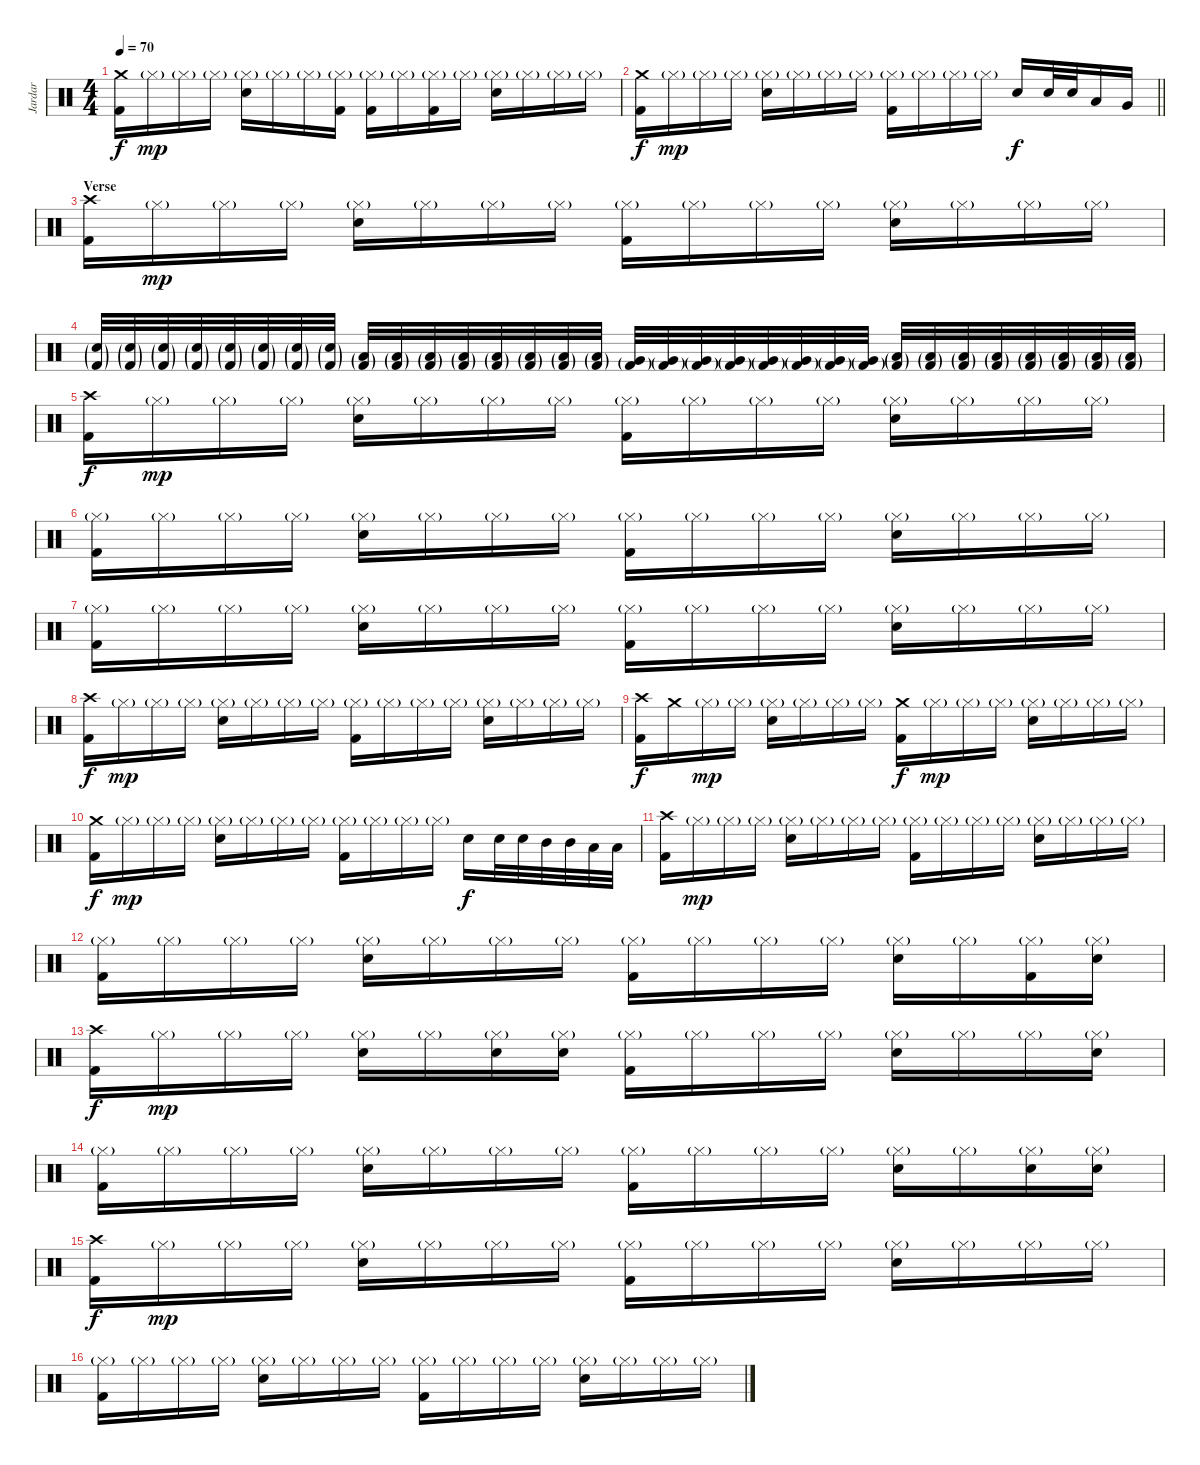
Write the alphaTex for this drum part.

\track ("Jardar" "Jardar") {instrument percussion}
\staff {score}
\articulation defaults
\ts (4 4)
\tempo 70
\clef neutral
\ks c
("Crash medium (hit)" "Kick (hit) 2").16{dy f} "Hi-Hat (closed)"{g}.16{dy mp} "Hi-Hat (closed)"{g}.16 "Hi-Hat (closed)"{g}.16 ("Hi-Hat (closed)"{g} "Electric Snare (hit)").16 "Hi-Hat (closed)"{g}.16 "Hi-Hat (closed)"{g}.16 ("Hi-Hat (closed)"{g} "Kick (hit) 2").16 ("Hi-Hat (closed)"{g} "Kick (hit) 2").16 "Hi-Hat (closed)"{g}.16 ("Hi-Hat (closed)"{g} "Kick (hit) 2").16 "Hi-Hat (closed)"{g}.16 ("Hi-Hat (closed)"{g} "Electric Snare (hit)").16 "Hi-Hat (closed)"{g}.16 "Hi-Hat (closed)"{g}.16 "Hi-Hat (closed)"{g}.16 |
\barLineRight lightlight
("Crash medium (hit)" "Kick (hit) 2").16{dy f} "Hi-Hat (closed)"{g}.16{dy mp} "Hi-Hat (closed)"{g}.16 "Hi-Hat (closed)"{g}.16 ("Hi-Hat (closed)"{g} "Electric Snare (hit)").16 "Hi-Hat (closed)"{g}.16 "Hi-Hat (closed)"{g}.16 "Hi-Hat (closed)"{g}.16 ("Hi-Hat (closed)"{g} "Kick (hit) 2").16 "Hi-Hat (closed)"{g}.16 "Hi-Hat (closed)"{g}.16 "Hi-Hat (closed)"{g}.16 "Electric Snare (hit)".16{dy f} "Electric Snare (hit)".32 "Electric Snare (hit)".32 "Low Tom (hit)".16 "Very Low Tom (hit)".16 |
\section ("" "Verse")
("Crash high (hit)" "Kick (hit) 2").16 "Hi-Hat (closed)"{g}.16{dy mp} "Hi-Hat (closed)"{g}.16 "Hi-Hat (closed)"{g}.16 ("Hi-Hat (closed)"{g} "Electric Snare (hit)").16 "Hi-Hat (closed)"{g}.16 "Hi-Hat (closed)"{g}.16 "Hi-Hat (closed)"{g}.16 ("Hi-Hat (closed)"{g} "Kick (hit) 2").16 "Hi-Hat (closed)"{g}.16 "Hi-Hat (closed)"{g}.16 "Hi-Hat (closed)"{g}.16 ("Hi-Hat (closed)"{g} "Electric Snare (hit)").16 "Hi-Hat (closed)"{g}.16 "Hi-Hat (closed)"{g}.16 "Hi-Hat (closed)"{g}.16 |
("Electric Snare (hit)"{g} "Kick (hit) 2"{g}).32 ("Electric Snare (hit)"{g} "Kick (hit) 2"{g}).32 ("Electric Snare (hit)"{g} "Kick (hit) 2"{g}).32 ("Electric Snare (hit)"{g} "Kick (hit) 2"{g}).32 ("Electric Snare (hit)"{g} "Kick (hit) 2"{g}).32 ("Electric Snare (hit)"{g} "Kick (hit) 2"{g}).32 ("Electric Snare (hit)"{g} "Kick (hit) 2"{g}).32 ("Electric Snare (hit)"{g} "Kick (hit) 2"{g}).32 ("Low Tom (hit)"{g} "Kick (hit) 2"{g}).32 ("Low Tom (hit)"{g} "Kick (hit) 2"{g}).32 ("Low Tom (hit)"{g} "Kick (hit) 2"{g}).32 ("Low Tom (hit)"{g} "Kick (hit) 2"{g}).32 ("Low Tom (hit)"{g} "Kick (hit) 2"{g}).32 ("Low Tom (hit)"{g} "Kick (hit) 2"{g}).32 ("Low Tom (hit)"{g} "Kick (hit) 2"{g}).32 ("Low Tom (hit)"{g} "Kick (hit) 2"{g}).32 ("Very Low Tom (hit)"{g} "Kick (hit) 2"{g}).32 ("Very Low Tom (hit)"{g} "Kick (hit) 2"{g}).32 ("Very Low Tom (hit)"{g} "Kick (hit) 2"{g}).32 ("Very Low Tom (hit)"{g} "Kick (hit) 2"{g}).32 ("Very Low Tom (hit)"{g} "Kick (hit) 2"{g}).32 ("Very Low Tom (hit)"{g} "Kick (hit) 2"{g}).32 ("Very Low Tom (hit)"{g} "Kick (hit) 2"{g}).32 ("Very Low Tom (hit)"{g} "Kick (hit) 2"{g}).32 ("Low Floor Tom (hit)"{g} "Kick (hit) 2"{g}).32 ("Low Floor Tom (hit)"{g} "Kick (hit) 2"{g}).32 ("Low Floor Tom (hit)"{g} "Kick (hit) 2"{g}).32 ("Low Floor Tom (hit)"{g} "Kick (hit) 2"{g}).32 ("Low Floor Tom (hit)"{g} "Kick (hit) 2"{g}).32 ("Low Floor Tom (hit)"{g} "Kick (hit) 2"{g}).32 ("Low Floor Tom (hit)"{g} "Kick (hit) 2"{g}).32 ("Low Floor Tom (hit)"{g} "Kick (hit) 2"{g}).32 |
("Crash high (hit)" "Kick (hit) 2").16{dy f} "Hi-Hat (closed)"{g}.16{dy mp} "Hi-Hat (closed)"{g}.16 "Hi-Hat (closed)"{g}.16 ("Hi-Hat (closed)"{g} "Electric Snare (hit)").16 "Hi-Hat (closed)"{g}.16 "Hi-Hat (closed)"{g}.16 "Hi-Hat (closed)"{g}.16 ("Hi-Hat (closed)"{g} "Kick (hit) 2").16 "Hi-Hat (closed)"{g}.16 "Hi-Hat (closed)"{g}.16 "Hi-Hat (closed)"{g}.16 ("Hi-Hat (closed)"{g} "Electric Snare (hit)").16 "Hi-Hat (closed)"{g}.16 "Hi-Hat (closed)"{g}.16 "Hi-Hat (closed)"{g}.16 |
("Hi-Hat (closed)"{g} "Kick (hit) 2").16 "Hi-Hat (closed)"{g}.16 "Hi-Hat (closed)"{g}.16 "Hi-Hat (closed)"{g}.16 ("Hi-Hat (closed)"{g} "Electric Snare (hit)").16 "Hi-Hat (closed)"{g}.16 "Hi-Hat (closed)"{g}.16 "Hi-Hat (closed)"{g}.16 ("Hi-Hat (closed)"{g} "Kick (hit) 2").16 "Hi-Hat (closed)"{g}.16 "Hi-Hat (closed)"{g}.16 "Hi-Hat (closed)"{g}.16 ("Hi-Hat (closed)"{g} "Electric Snare (hit)").16 "Hi-Hat (closed)"{g}.16 "Hi-Hat (closed)"{g}.16 "Hi-Hat (closed)"{g}.16 |
("Hi-Hat (closed)"{g} "Kick (hit) 2").16 "Hi-Hat (closed)"{g}.16 "Hi-Hat (closed)"{g}.16 "Hi-Hat (closed)"{g}.16 ("Hi-Hat (closed)"{g} "Electric Snare (hit)").16 "Hi-Hat (closed)"{g}.16 "Hi-Hat (closed)"{g}.16 "Hi-Hat (closed)"{g}.16 ("Hi-Hat (closed)"{g} "Kick (hit) 2").16 "Hi-Hat (closed)"{g}.16 "Hi-Hat (closed)"{g}.16 "Hi-Hat (closed)"{g}.16 ("Hi-Hat (closed)"{g} "Electric Snare (hit)").16 "Hi-Hat (closed)"{g}.16 "Hi-Hat (closed)"{g}.16 "Hi-Hat (closed)"{g}.16 |
("Crash high (hit)" "Kick (hit) 2").16{dy f} "Hi-Hat (closed)"{g}.16{dy mp} "Hi-Hat (closed)"{g}.16 "Hi-Hat (closed)"{g}.16 ("Hi-Hat (closed)"{g} "Electric Snare (hit)").16 "Hi-Hat (closed)"{g}.16 "Hi-Hat (closed)"{g}.16 "Hi-Hat (closed)"{g}.16 ("Hi-Hat (closed)"{g} "Kick (hit) 2").16 "Hi-Hat (closed)"{g}.16 "Hi-Hat (closed)"{g}.16 "Hi-Hat (closed)"{g}.16 ("Hi-Hat (closed)"{g} "Electric Snare (hit)").16 "Hi-Hat (closed)"{g}.16 "Hi-Hat (closed)"{g}.16 "Hi-Hat (closed)"{g}.16 |
("Crash high (hit)" "Kick (hit) 2").16{dy f} "Crash medium (hit)".16 "Hi-Hat (closed)"{g}.16{dy mp} "Hi-Hat (closed)"{g}.16 ("Hi-Hat (closed)"{g} "Electric Snare (hit)").16 "Hi-Hat (closed)"{g}.16 "Hi-Hat (closed)"{g}.16 "Hi-Hat (closed)"{g}.16 ("Crash medium (hit)" "Kick (hit) 2").16{dy f} "Hi-Hat (closed)"{g}.16{dy mp} "Hi-Hat (closed)"{g}.16 "Hi-Hat (closed)"{g}.16 ("Hi-Hat (closed)"{g} "Electric Snare (hit)").16 "Hi-Hat (closed)"{g}.16 "Hi-Hat (closed)"{g}.16 "Hi-Hat (closed)"{g}.16 |
("Crash medium (hit)" "Kick (hit) 2").16{dy f} "Hi-Hat (closed)"{g}.16{dy mp} "Hi-Hat (closed)"{g}.16 "Hi-Hat (closed)"{g}.16 ("Hi-Hat (closed)"{g} "Electric Snare (hit)").16 "Hi-Hat (closed)"{g}.16 "Hi-Hat (closed)"{g}.16 "Hi-Hat (closed)"{g}.16 ("Hi-Hat (closed)"{g} "Kick (hit) 2").16 "Hi-Hat (closed)"{g}.16 "Hi-Hat (closed)"{g}.16 "Hi-Hat (closed)"{g}.16 "Electric Snare (hit)".16{dy f} "Electric Snare (hit)".32 "Electric Snare (hit)".32 "Mid Tom (hit)".32 "Mid Tom (hit)".32 "Low Tom (hit)".32 "Low Tom (hit)".32 |
("Crash high (hit)" "Kick (hit) 2").16 "Hi-Hat (closed)"{g}.16{dy mp} "Hi-Hat (closed)"{g}.16 "Hi-Hat (closed)"{g}.16 ("Hi-Hat (closed)"{g} "Electric Snare (hit)").16 "Hi-Hat (closed)"{g}.16 "Hi-Hat (closed)"{g}.16 "Hi-Hat (closed)"{g}.16 ("Hi-Hat (closed)"{g} "Kick (hit) 2").16 "Hi-Hat (closed)"{g}.16 "Hi-Hat (closed)"{g}.16 "Hi-Hat (closed)"{g}.16 ("Hi-Hat (closed)"{g} "Electric Snare (hit)").16 "Hi-Hat (closed)"{g}.16 "Hi-Hat (closed)"{g}.16 "Hi-Hat (closed)"{g}.16 |
("Hi-Hat (closed)"{g} "Kick (hit) 2").16 "Hi-Hat (closed)"{g}.16 "Hi-Hat (closed)"{g}.16 "Hi-Hat (closed)"{g}.16 ("Hi-Hat (closed)"{g} "Electric Snare (hit)").16 "Hi-Hat (closed)"{g}.16 "Hi-Hat (closed)"{g}.16 "Hi-Hat (closed)"{g}.16 ("Hi-Hat (closed)"{g} "Kick (hit) 2").16 "Hi-Hat (closed)"{g}.16 "Hi-Hat (closed)"{g}.16 "Hi-Hat (closed)"{g}.16 ("Hi-Hat (closed)"{g} "Electric Snare (hit)").16 "Hi-Hat (closed)"{g}.16 ("Hi-Hat (closed)"{g} "Kick (hit) 2").16 ("Hi-Hat (closed)"{g} "Electric Snare (hit)").16 |
("Crash high (hit)" "Kick (hit) 2").16{dy f} "Hi-Hat (closed)"{g}.16{dy mp} "Hi-Hat (closed)"{g}.16 "Hi-Hat (closed)"{g}.16 ("Hi-Hat (closed)"{g} "Electric Snare (hit)").16 "Hi-Hat (closed)"{g}.16 ("Hi-Hat (closed)"{g} "Electric Snare (hit)").16 ("Hi-Hat (closed)"{g} "Electric Snare (hit)").16 ("Hi-Hat (closed)"{g} "Kick (hit) 2").16 "Hi-Hat (closed)"{g}.16 "Hi-Hat (closed)"{g}.16 "Hi-Hat (closed)"{g}.16 ("Hi-Hat (closed)"{g} "Electric Snare (hit)").16 "Hi-Hat (closed)"{g}.16 "Hi-Hat (closed)"{g}.16 ("Hi-Hat (closed)"{g} "Electric Snare (hit)").16 |
("Hi-Hat (closed)"{g} "Kick (hit) 2").16 "Hi-Hat (closed)"{g}.16 "Hi-Hat (closed)"{g}.16 "Hi-Hat (closed)"{g}.16 ("Hi-Hat (closed)"{g} "Electric Snare (hit)").16 "Hi-Hat (closed)"{g}.16 "Hi-Hat (closed)"{g}.16 "Hi-Hat (closed)"{g}.16 ("Hi-Hat (closed)"{g} "Kick (hit) 2").16 "Hi-Hat (closed)"{g}.16 "Hi-Hat (closed)"{g}.16 "Hi-Hat (closed)"{g}.16 ("Hi-Hat (closed)"{g} "Electric Snare (hit)").16 "Hi-Hat (closed)"{g}.16 ("Hi-Hat (closed)"{g} "Electric Snare (hit)").16 ("Hi-Hat (closed)"{g} "Electric Snare (hit)").16 |
("Crash high (hit)" "Kick (hit) 2").16{dy f} "Hi-Hat (closed)"{g}.16{dy mp} "Hi-Hat (closed)"{g}.16 "Hi-Hat (closed)"{g}.16 ("Hi-Hat (closed)"{g} "Electric Snare (hit)").16 "Hi-Hat (closed)"{g}.16 "Hi-Hat (closed)"{g}.16 "Hi-Hat (closed)"{g}.16 ("Hi-Hat (closed)"{g} "Kick (hit) 2").16 "Hi-Hat (closed)"{g}.16 "Hi-Hat (closed)"{g}.16 "Hi-Hat (closed)"{g}.16 ("Hi-Hat (closed)"{g} "Electric Snare (hit)").16 "Hi-Hat (closed)"{g}.16 "Hi-Hat (closed)"{g}.16 "Hi-Hat (closed)"{g}.16 |
("Hi-Hat (closed)"{g} "Kick (hit) 2").16 "Hi-Hat (closed)"{g}.16 "Hi-Hat (closed)"{g}.16 "Hi-Hat (closed)"{g}.16 ("Hi-Hat (closed)"{g} "Electric Snare (hit)").16 "Hi-Hat (closed)"{g}.16 "Hi-Hat (closed)"{g}.16 "Hi-Hat (closed)"{g}.16 ("Hi-Hat (closed)"{g} "Kick (hit) 2").16 "Hi-Hat (closed)"{g}.16 "Hi-Hat (closed)"{g}.16 "Hi-Hat (closed)"{g}.16 ("Hi-Hat (closed)"{g} "Electric Snare (hit)").16 "Hi-Hat (closed)"{g}.16 "Hi-Hat (closed)"{g}.16 "Hi-Hat (closed)"{g}.16
